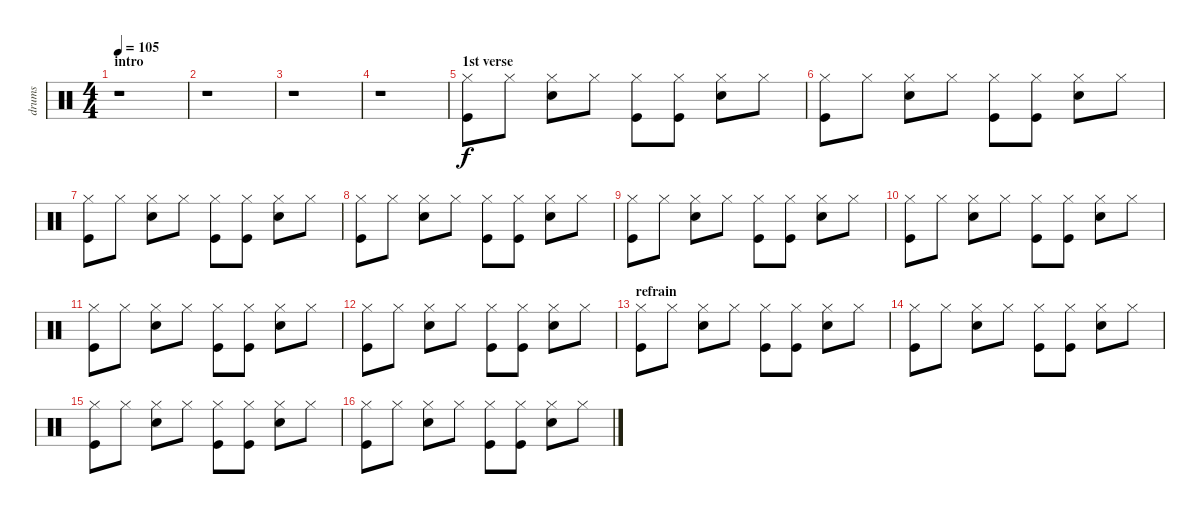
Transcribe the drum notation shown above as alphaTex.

\track ("drums" "drums") {instrument percussion}
\staff {score}
\articulation defaults
\ts (4 4)
\section ("" "intro")
\tempo 105
\clef neutral
\ks c
r.1{dy f} |
r.1 |
r.1 |
r.1 |
\section ("" "1st verse")
("Hi-Hat (closed)" "Kick (hit)").8 "Hi-Hat (closed)".8 ("Hi-Hat (closed)" "Snare (hit) 2").8 "Hi-Hat (closed)".8 ("Hi-Hat (closed)" "Kick (hit)").8 ("Hi-Hat (closed)" "Kick (hit)").8 ("Hi-Hat (closed)" "Snare (hit) 2").8 "Hi-Hat (closed)".8 |
("Hi-Hat (closed)" "Kick (hit)").8 "Hi-Hat (closed)".8 ("Hi-Hat (closed)" "Snare (hit) 2").8 "Hi-Hat (closed)".8 ("Hi-Hat (closed)" "Kick (hit)").8 ("Hi-Hat (closed)" "Kick (hit)").8 ("Hi-Hat (closed)" "Snare (hit) 2").8 "Hi-Hat (closed)".8 |
("Hi-Hat (closed)" "Kick (hit)").8 "Hi-Hat (closed)".8 ("Hi-Hat (closed)" "Snare (hit) 2").8 "Hi-Hat (closed)".8 ("Hi-Hat (closed)" "Kick (hit)").8 ("Hi-Hat (closed)" "Kick (hit)").8 ("Hi-Hat (closed)" "Snare (hit) 2").8 "Hi-Hat (closed)".8 |
("Hi-Hat (closed)" "Kick (hit)").8 "Hi-Hat (closed)".8 ("Hi-Hat (closed)" "Snare (hit) 2").8 "Hi-Hat (closed)".8 ("Hi-Hat (closed)" "Kick (hit)").8 ("Hi-Hat (closed)" "Kick (hit)").8 ("Hi-Hat (closed)" "Snare (hit) 2").8 "Hi-Hat (closed)".8 |
("Hi-Hat (closed)" "Kick (hit)").8 "Hi-Hat (closed)".8 ("Hi-Hat (closed)" "Snare (hit) 2").8 "Hi-Hat (closed)".8 ("Hi-Hat (closed)" "Kick (hit)").8 ("Hi-Hat (closed)" "Kick (hit)").8 ("Hi-Hat (closed)" "Snare (hit) 2").8 "Hi-Hat (closed)".8 |
("Hi-Hat (closed)" "Kick (hit)").8 "Hi-Hat (closed)".8 ("Hi-Hat (closed)" "Snare (hit) 2").8 "Hi-Hat (closed)".8 ("Hi-Hat (closed)" "Kick (hit)").8 ("Hi-Hat (closed)" "Kick (hit)").8 ("Hi-Hat (closed)" "Snare (hit) 2").8 "Hi-Hat (closed)".8 |
("Hi-Hat (closed)" "Kick (hit)").8 "Hi-Hat (closed)".8 ("Hi-Hat (closed)" "Snare (hit) 2").8 "Hi-Hat (closed)".8 ("Hi-Hat (closed)" "Kick (hit)").8 ("Hi-Hat (closed)" "Kick (hit)").8 ("Hi-Hat (closed)" "Snare (hit) 2").8 "Hi-Hat (closed)".8 |
("Hi-Hat (closed)" "Kick (hit)").8 "Hi-Hat (closed)".8 ("Hi-Hat (closed)" "Snare (hit) 2").8 "Hi-Hat (closed)".8 ("Hi-Hat (closed)" "Kick (hit)").8 ("Hi-Hat (closed)" "Kick (hit)").8 ("Hi-Hat (closed)" "Snare (hit) 2").8 "Hi-Hat (closed)".8 |
\section ("" "refrain")
("Hi-Hat (closed)" "Kick (hit)").8 "Hi-Hat (closed)".8 ("Hi-Hat (closed)" "Snare (hit) 2").8 "Hi-Hat (closed)".8 ("Hi-Hat (closed)" "Kick (hit)").8 ("Hi-Hat (closed)" "Kick (hit)").8 ("Hi-Hat (closed)" "Snare (hit) 2").8 "Hi-Hat (closed)".8 |
("Hi-Hat (closed)" "Kick (hit)").8 "Hi-Hat (closed)".8 ("Hi-Hat (closed)" "Snare (hit) 2").8 "Hi-Hat (closed)".8 ("Hi-Hat (closed)" "Kick (hit)").8 ("Hi-Hat (closed)" "Kick (hit)").8 ("Hi-Hat (closed)" "Snare (hit) 2").8 "Hi-Hat (closed)".8 |
("Hi-Hat (closed)" "Kick (hit)").8 "Hi-Hat (closed)".8 ("Hi-Hat (closed)" "Snare (hit) 2").8 "Hi-Hat (closed)".8 ("Hi-Hat (closed)" "Kick (hit)").8 ("Hi-Hat (closed)" "Kick (hit)").8 ("Hi-Hat (closed)" "Snare (hit) 2").8 "Hi-Hat (closed)".8 |
("Hi-Hat (closed)" "Kick (hit)").8 "Hi-Hat (closed)".8 ("Hi-Hat (closed)" "Snare (hit) 2").8 "Hi-Hat (closed)".8 ("Hi-Hat (closed)" "Kick (hit)").8 ("Hi-Hat (closed)" "Kick (hit)").8 ("Hi-Hat (closed)" "Snare (hit) 2").8 "Hi-Hat (closed)".8
